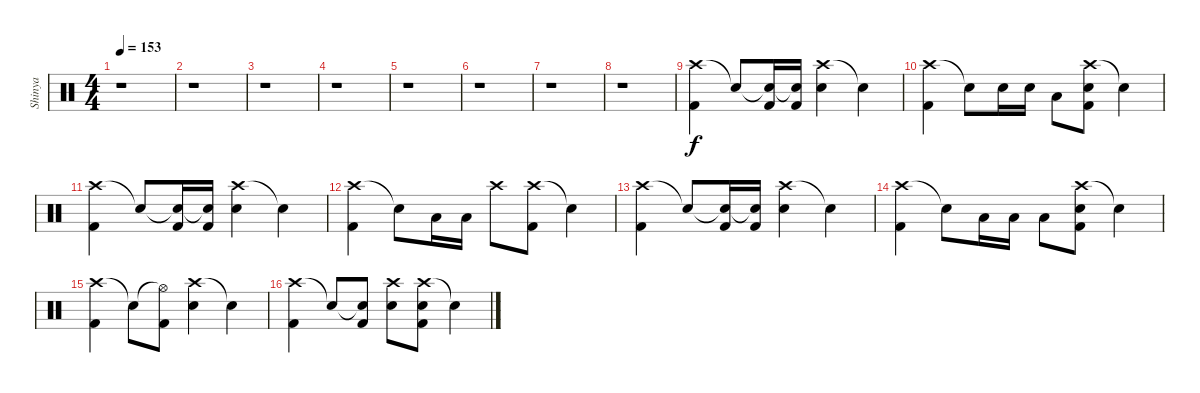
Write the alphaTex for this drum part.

\track ("Shinya" "Shinya") {instrument percussion}
\staff {score}
\articulation defaults
\ts (4 4)
\tempo 153
\clef neutral
\ks c
r.1{dy f} |
r.1 |
r.1 |
r.1 |
r.1 |
r.1 |
r.1 |
r.1 |
("Crash high (hit)" "Kick (hit) 2").4 "Snare (hit)"{t}.8 ("Snare (hit)"{t} "Kick (hit) 2").16 ("Snare (hit)"{t} "Kick (hit) 2").16 ("Crash high (hit)" "Electric Snare (hit)").4 "Snare (hit)"{t}.4 |
("Crash high (hit)" "Kick (hit) 2").4 "Snare (hit)"{t}.8 "Electric Snare (hit)".16 "Electric Snare (hit)".16 "Low Floor Tom (hit)".8 ("Crash high (hit)" "Electric Snare (hit)" "Kick (hit) 2").8 "Snare (hit)"{t}.4 |
("Crash high (hit)" "Kick (hit) 2").4 "Snare (hit)"{t}.8 ("Snare (hit)"{t} "Kick (hit) 2").16 ("Snare (hit)"{t} "Kick (hit) 2").16 ("Crash high (hit)" "Electric Snare (hit)").4 "Snare (hit)"{t}.4 |
("Crash high (hit)" "Kick (hit) 2").4 "Snare (hit)"{t}.8 "Low Tom (hit)".16 "Low Tom (hit)".16 "Crash high (hit)".8 ("Crash high (hit)" "Kick (hit) 2").8 "Snare (hit)"{t}.4 |
("Crash high (hit)" "Kick (hit) 2").4 "Snare (hit)"{t}.8 ("Snare (hit)"{t} "Kick (hit) 2").16 ("Snare (hit)"{t} "Kick (hit) 2").16 ("Crash high (hit)" "Electric Snare (hit)").4 "Snare (hit)"{t}.4 |
("Crash high (hit)" "Kick (hit) 2").4 "Snare (hit)"{t}.8 "Low Tom (hit)".16 "Low Tom (hit)".16 "Low Floor Tom (hit)".8 ("Crash high (hit)" "Electric Snare (hit)" "Kick (hit) 2").8 "Snare (hit)"{t}.4 |
("Crash high (hit)" "Kick (hit) 2").4 "Snare (hit)"{t}.8 ("Hi-Hat (open)"{t} "Kick (hit) 2").8 ("Crash high (hit)" "Electric Snare (hit)").4 "Snare (hit)"{t}.4 |
("Crash high (hit)" "Kick (hit) 2").4 "Snare (hit)"{t}.8 ("Snare (hit)"{t} "Kick (hit) 2").8 ("Crash high (hit)" "Electric Snare (hit)").8 ("Crash high (hit)" "Electric Snare (hit)" "Kick (hit) 2").8 "Snare (hit)"{t}.4
